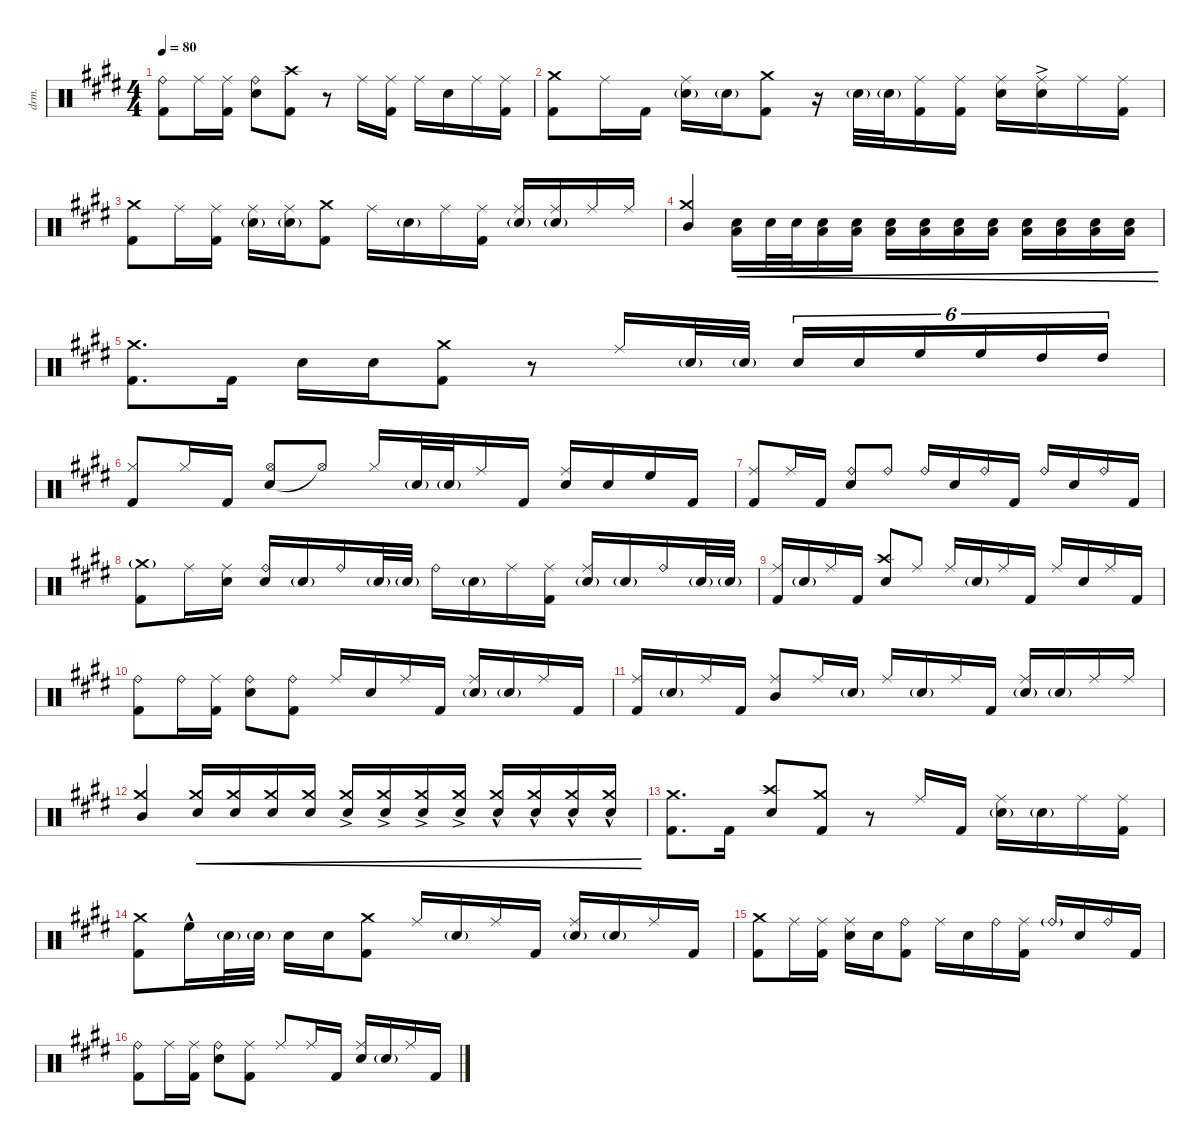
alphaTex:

\defaultSystemsLayout 4
\hideDynamics
\bracketExtendMode groupsimilarinstruments
\otherSystemsTrackNameOrientation horizontal
\chordDiagramsInScore
\track ("Drumkit" "drm.") {instrument percussion}
\staff {score}
\articulation defaults
\ts (4 4)
\tempo 80
\clef neutral
\scale
0.958389
\ks e
("Ride (bell)"{acc forcenatural} "Kick (hit) 2"{acc forcenatural}).8{dy mf} "Ride (middle)"{acc forcenatural}.16 ("Ride (middle)"{acc forcenatural} "Kick (hit) 2"{acc forcenatural}).16 ("Snare (hit) 2"{acc forcenatural} "Ride (bell)"{acc forcenatural}).8 ("Crash high (hit)"{acc forcenatural} "Kick (hit) 2"{acc forcenatural}).8 r.8 "Ride (middle)"{acc forcenatural}.16 ("Ride (middle)"{acc forcenatural} "Kick (hit) 2"{acc forcenatural}).16 "Ride (middle)"{acc forcenatural}.16 "Snare (hit) 2"{acc forcenatural}.16 "Ride (middle)"{acc forcenatural}.16 ("Ride (middle)"{acc forcenatural} "Kick (hit) 2"{acc forcenatural}).16 |
\scale
1.04161 ("Kick (hit) 2"{acc forcenatural} "Crash medium (hit)"{acc forcenatural}).8 "Ride (middle)"{acc forcenatural}.16 "Kick (hit) 2"{acc forcenatural}.16 ("Ride (middle)"{acc forcenatural} "Snare (hit) 2"{g acc forcenatural}).16 "Snare (hit) 2"{g acc forcenatural}.16 ("Crash medium (hit)"{acc forcenatural} "Kick (hit) 2"{acc forcenatural}).8 r.16 "Snare (hit) 2"{g acc forcenatural}.32 "Snare (hit) 2"{g acc forcenatural}.32 ("Ride (middle)"{acc forcenatural} "Kick (hit) 2"{acc forcenatural}).16 ("Ride (middle)"{acc forcenatural} "Kick (hit) 2"{acc forcenatural}).16 ("Snare (hit) 2"{acc forcenatural} "Ride (middle)"{acc forcenatural}).16 ("Ride (middle)"{ac acc forcenatural} "Snare (hit) 2"{acc forcenatural}).16 "Ride (middle)"{acc forcenatural}.16 ("Ride (middle)"{acc forcenatural} "Kick (hit) 2"{acc forcenatural}).16 |
("Crash medium (hit)"{acc forcenatural} "Kick (hit) 2"{acc forcenatural}).8 "Ride (middle)"{acc forcenatural}.16 ("Ride (middle)"{acc forcenatural} "Kick (hit) 2"{acc forcenatural}).16 ("Ride (middle)"{acc forcenatural} "Snare (hit) 2"{g acc forcenatural}).16 ("Ride (middle)"{acc forcenatural} "Snare (hit) 2"{g acc forcenatural}).16 ("Crash medium (hit)"{acc forcenatural} "Kick (hit) 2"{acc forcenatural}).8 "Ride (middle)"{acc forcenatural}.16 "Snare (hit) 2"{g acc forcenatural}.16 "Ride (middle)"{acc forcenatural}.16 ("Ride (middle)"{acc forcenatural} "Kick (hit) 2"{acc forcenatural}).16 ("Snare (hit) 2"{g acc forcenatural} "Ride (middle)"{acc forcenatural}).16{beam Up} ("Ride (middle)"{acc forcenatural} "Snare (hit) 2"{g acc forcenatural}).16{beam Up} "Ride (middle)"{acc forcenatural}.16{beam Up} "Ride (middle)"{acc forcenatural}.16{beam Up} |
("Crash medium (hit)"{acc forcenatural} "Mid Tom (hit)"{acc forcenatural}).4{beam Up} ("Snare (hit) 2"{acc forcenatural} "Low Tom (hit)"{acc forcenatural}).16{cre} "Snare (hit) 2"{acc forcenatural}.32{cre} "Snare (hit) 2"{acc forcenatural}.32{cre} ("Snare (hit) 2"{acc forcenatural} "Low Tom (hit)"{acc forcenatural}).16{cre} ("Low Tom (hit)"{acc forcenatural} "Snare (hit) 2"{acc forcenatural}).16{cre} ("Snare (hit) 2"{acc forcenatural} "Low Tom (hit)"{acc forcenatural}).16{cre} ("Snare (hit) 2"{acc forcenatural} "Low Tom (hit)"{acc forcenatural}).16{cre} ("Snare (hit) 2"{acc forcenatural} "Low Tom (hit)"{acc forcenatural}).16{cre} ("Snare (hit) 2"{acc forcenatural} "Low Tom (hit)"{acc forcenatural}).16{cre} ("Snare (hit) 2"{acc forcenatural} "Low Tom (hit)"{acc forcenatural}).16{cre} ("Snare (hit) 2"{acc forcenatural} "Low Tom (hit)"{acc forcenatural}).16{cre} ("Snare (hit) 2"{acc forcenatural} "Low Tom (hit)"{acc forcenatural}).16{cre} ("Snare (hit) 2"{acc forcenatural} "Low Tom (hit)"{acc forcenatural}).16{cre} |
("Crash medium (hit)"{acc forcenatural} "Kick (hit) 2"{acc forcenatural}).8{d} "Kick (hit) 2"{acc forcenatural}.16 "Snare (hit) 2"{acc forcenatural}.16 "Snare (hit) 2"{acc forcenatural}.16 ("Crash medium (hit)"{acc forcenatural} "Kick (hit) 2"{acc forcenatural}).8 r.8 "Ride (middle)"{acc forcenatural}.16{beam Up} "Snare (hit) 2"{g acc forcenatural}.32{beam Up} "Snare (hit) 2"{g acc forcenatural}.32{beam Up} "Snare (hit) 2"{acc forcenatural}.16{tu (6 4) beam Up} "Snare (hit) 2"{acc forcenatural}.16{tu (6 4) beam Up} "High Floor Tom (hit)"{acc forcenatural}.16{tu (6 4) beam Up} "High Floor Tom (hit)"{acc forcenatural}.16{tu (6 4) beam Up} "High Tom (hit)"{acc forcenatural}.16{tu (6 4) beam Up} "High Tom (hit)"{acc forcenatural}.16{tu (6 4) beam Up} |
("Kick (hit) 2"{acc forcenatural} "Hi-Hat (closed)"{acc forcenatural}).8{beam Up} "Hi-Hat (closed)"{acc forcenatural}.16{beam Up} "Kick (hit) 2"{acc forcenatural}.16{beam Up} ("Snare (hit) 2"{acc forcenatural} "Hi-Hat (open)"{acc forcenatural}).8{beam Up} "Hi-Hat (open)"{t acc forcenatural}.8{beam Up} "Hi-Hat (closed)"{acc forcenatural}.16{beam Up} "Snare (hit) 2"{g acc forcenatural}.32{beam Up} "Snare (hit) 2"{g acc forcenatural}.32{beam Up} "Ride (middle)"{acc forcenatural}.16{beam Up} "Kick (hit) 2"{acc forcenatural}.16{beam Up} ("Snare (hit) 2"{acc forcenatural} "Ride (middle)"{acc forcenatural}).16{beam Up} "Snare (hit) 2"{acc forcenatural}.16{beam Up} "High Floor Tom (hit)"{acc forcenatural}.16{beam Up} "Kick (hit) 2"{acc forcenatural}.16{beam Up} |
\scale
1.00245 ("Ride (middle)"{acc forcenatural} "Kick (hit) 2"{acc forcenatural}).8{beam Up} "Ride (middle)"{acc forcenatural}.16{beam Up} "Kick (hit) 2"{acc forcenatural}.16{beam Up} ("Snare (hit) 2"{acc forcenatural} "Ride (bell)"{acc forcenatural}).8{beam Up} "Ride (bell)"{acc forcenatural}.8{beam Up} "Ride (bell)"{acc forcenatural}.16{beam Up} "Snare (hit) 2"{acc forcenatural}.16{beam Up} "Ride (bell)"{acc forcenatural}.16{beam Up} "Kick (hit) 2"{acc forcenatural}.16{beam Up} "Ride (bell)"{acc forcenatural}.16{beam Up} "Snare (hit) 2"{acc forcenatural}.16{beam Up} "Ride (bell)"{acc forcenatural}.16{beam Up} "Kick (hit) 2"{acc forcenatural}.16{beam Up} |
\scale
0.997548 ("Crash medium (hit)"{g acc forcenatural} "Kick (hit) 2"{acc forcenatural}).8{beam Down} "Ride (middle)"{acc forcenatural}.16{beam Down} ("Ride (middle)"{acc forcenatural} "Snare (hit) 2"{acc forcenatural}).16{beam Down} ("Ride (bell)"{acc forcenatural} "Snare (hit) 2"{acc forcenatural}).16{beam Up} "Snare (hit) 2"{g acc forcenatural}.16{beam Up} "Ride (bell)"{acc forcenatural}.16{beam Up} "Snare (hit) 2"{g acc forcenatural}.32{beam Up} "Snare (hit) 2"{g acc forcenatural}.32{beam Up} "Ride (bell)"{acc forcenatural}.16{beam Down} "Snare (hit) 2"{g acc forcenatural}.16 "Ride (middle)"{acc forcenatural}.16 ("Ride (middle)"{acc forcenatural} "Kick (hit) 2"{acc forcenatural}).16 ("Snare (hit) 2"{g acc forcenatural} "Ride (middle)"{acc forcenatural}).16{beam Up} "Snare (hit) 2"{g acc forcenatural}.16{beam Up} "Ride (bell)"{acc forcenatural}.16{beam Up} "Snare (hit) 2"{g acc forcenatural}.32{beam Up} "Snare (hit) 2"{g acc forcenatural}.32{beam Up} |
("Kick (hit) 2"{acc forcenatural} "Ride (middle)"{acc forcenatural}).16{beam Up} "Snare (hit) 2"{g acc forcenatural}.16{beam Up} "Ride (middle)"{acc forcenatural}.16{beam Up} "Kick (hit) 2"{acc forcenatural}.16{beam Up} ("Crash high (hit)"{acc forcenatural} "Snare (hit) 2"{acc forcenatural}).8{beam Up} "Ride (middle)"{acc forcenatural}.8{beam Up} "Ride (middle)"{acc forcenatural}.16{beam Up} "Snare (hit) 2"{g acc forcenatural}.16{beam Up} "Ride (middle)"{acc forcenatural}.16{beam Up} "Kick (hit) 2"{acc forcenatural}.16{beam Up} "Ride (middle)"{acc forcenatural}.16{beam Up} "Snare (hit) 2"{acc forcenatural}.16{beam Up} "Ride (middle)"{acc forcenatural}.16{beam Up} "Kick (hit) 2"{acc forcenatural}.16{beam Up} |
("Ride (bell)"{acc forcenatural} "Kick (hit) 2"{acc forcenatural}).8 "Ride (bell)"{acc forcenatural}.16 ("Ride (middle)"{acc forcenatural} "Kick (hit) 2"{acc forcenatural}).16 ("Ride (bell)"{acc forcenatural} "Snare (hit) 2"{acc forcenatural}).8 ("Ride (bell)"{acc forcenatural} "Kick (hit) 2"{acc forcenatural}).8 "Ride (middle)"{acc forcenatural}.16{beam Up} "Snare (hit) 2"{acc forcenatural}.16{beam Up} "Ride (middle)"{acc forcenatural}.16{beam Up} "Kick (hit) 2"{acc forcenatural}.16{beam Up} ("Snare (hit) 2"{g acc forcenatural} "Ride (middle)"{acc forcenatural}).16{beam Up} "Snare (hit) 2"{g acc forcenatural}.16{beam Up} "Ride (middle)"{acc forcenatural}.16{beam Up} "Kick (hit) 2"{acc forcenatural}.16{beam Up} |
\scale
1.09217 ("Ride (middle)"{acc forcenatural} "Kick (hit) 2"{acc forcenatural}).16{beam Up} "Snare (hit) 2"{g acc forcenatural}.16{beam Up} "Ride (middle)"{acc forcenatural}.16{beam Up} "Kick (hit) 2"{acc forcenatural}.16{beam Up} ("Mid Tom (hit)"{acc forcenatural} "Ride (middle)"{acc forcenatural}).8{beam Up} "Ride (middle)"{acc forcenatural}.16{beam Up} "Snare (hit) 2"{g acc forcenatural}.16{beam Up} "Ride (middle)"{acc forcenatural}.16{beam Up} "Snare (hit) 2"{g acc forcenatural}.16{beam Up} "Ride (middle)"{acc forcenatural}.16{beam Up} "Kick (hit) 2"{acc forcenatural}.16{beam Up} ("Ride (middle)"{acc forcenatural} "Snare (hit) 2"{g acc forcenatural}).16{beam Up} "Snare (hit) 2"{g acc forcenatural}.16{beam Up} "Ride (middle)"{acc forcenatural}.16{beam Up} "Ride (middle)"{acc forcenatural}.16{beam Up} |
\scale
0.907832 ("Crash medium (hit)"{acc forcenatural} "Mid Tom (hit)"{acc forcenatural}).4{beam Up} ("Crash medium (hit)"{acc forcenatural} "Snare (hit) 2"{acc forcenatural}).16{cre beam Up} ("Crash medium (hit)"{acc forcenatural} "Snare (hit) 2"{acc forcenatural}).16{cre beam Up} ("Crash medium (hit)"{acc forcenatural} "Snare (hit) 2"{acc forcenatural}).16{cre beam Up} ("Crash medium (hit)"{acc forcenatural} "Snare (hit) 2"{acc forcenatural}).16{cre beam Up} ("Crash medium (hit)"{ac acc forcenatural} "Snare (hit) 2"{ac acc forcenatural}).16{cre beam Up} ("Crash medium (hit)"{ac acc forcenatural} "Snare (hit) 2"{ac acc forcenatural}).16{cre beam Up} ("Crash medium (hit)"{ac acc forcenatural} "Snare (hit) 2"{ac acc forcenatural}).16{cre beam Up} ("Crash medium (hit)"{ac acc forcenatural} "Snare (hit) 2"{ac acc forcenatural}).16{cre beam Up} ("Crash medium (hit)"{hac acc forcenatural} "Snare (hit) 2"{hac acc forcenatural}).16{cre beam Up} ("Crash medium (hit)"{hac acc forcenatural} "Snare (hit) 2"{hac acc forcenatural}).16{cre beam Up} ("Crash medium (hit)"{hac acc forcenatural} "Snare (hit) 2"{hac acc forcenatural}).16{cre beam Up} ("Crash medium (hit)"{hac acc forcenatural} "Snare (hit) 2"{hac acc forcenatural}).16{cre beam Up} |
\scale
1.05848 ("Crash medium (hit)"{acc forcenatural} "Kick (hit) 2"{acc forcenatural}).8{d} "Kick (hit) 2"{acc forcenatural}.16 ("Crash high (hit)"{acc forcenatural} "Snare (hit) 2"{acc forcenatural}).8{beam Up} ("Crash medium (hit)"{acc forcenatural} "Kick (hit) 2"{acc forcenatural}).8{beam Up} r.8 "Ride (middle)"{acc forcenatural}.16{beam Up} "Kick (hit) 2"{acc forcenatural}.16{beam Up} ("Ride (middle)"{acc forcenatural} "Snare (hit) 2"{g acc forcenatural}).16 "Snare (hit) 2"{g acc forcenatural}.16 "Ride (middle)"{acc forcenatural}.16 ("Ride (middle)"{acc forcenatural} "Kick (hit) 2"{acc forcenatural}).16 |
\scale
0.941516 ("Crash medium (hit)"{acc forcenatural} "Kick (hit) 2"{acc forcenatural}).8 "High Floor Tom (hit)"{hac acc forcenatural}.16 "Snare (hit) 2"{g acc forcenatural}.32 "Snare (hit) 2"{g acc forcenatural}.32 "Snare (hit) 2"{acc forcenatural}.16{beam Down} "Snare (hit) 2"{acc forcenatural}.16{beam Down} ("Kick (hit) 2"{acc forcenatural} "Crash medium (hit)"{acc forcenatural}).8{beam Down} "Ride (middle)"{acc forcenatural}.16{beam Up} "Snare (hit) 2"{g acc forcenatural}.16{beam Up} "Ride (middle)"{acc forcenatural}.16{beam Up} "Kick (hit) 2"{acc forcenatural}.16{beam Up} ("Ride (middle)"{acc forcenatural} "Snare (hit) 2"{g acc forcenatural}).16{beam Up} "Snare (hit) 2"{g acc forcenatural}.16{beam Up} "Ride (middle)"{acc forcenatural}.16{beam Up} "Kick (hit) 2"{acc forcenatural}.16{beam Up} |
("Crash medium (hit)"{acc forcenatural} "Kick (hit) 2"{acc forcenatural}).8 "Ride (middle)"{acc forcenatural}.16 ("Ride (middle)"{acc forcenatural} "Kick (hit) 2"{acc forcenatural}).16 ("Ride (middle)"{acc forcenatural} "Snare (hit) 2"{acc forcenatural}).16 "Snare (hit) 2"{acc forcenatural}.16 ("Ride (bell)"{acc forcenatural} "Kick (hit) 2"{acc forcenatural}).8 "Ride (middle)"{acc forcenatural}.16 "Snare (hit) 2"{acc forcenatural}.16 "Ride (bell)"{acc forcenatural}.16 ("Ride (middle)"{acc forcenatural} "Kick (hit) 2"{acc forcenatural}).16 "Ride (bell)"{g acc forcenatural}.16{beam Up} "Snare (hit) 2"{acc forcenatural}.16{beam Up} "Ride (bell)"{acc forcenatural}.16{beam Up} "Kick (hit) 2"{acc forcenatural}.16{beam Up} |
("Ride (bell)"{acc forcenatural} "Kick (hit) 2"{acc forcenatural}).8 "Ride (middle)"{acc forcenatural}.16 ("Ride (middle)"{acc forcenatural} "Kick (hit) 2"{acc forcenatural}).16 ("Snare (hit) 2"{acc forcenatural} "Ride (bell)"{acc forcenatural}).8 ("Ride (middle)"{acc forcenatural} "Kick (hit) 2"{acc forcenatural}).8 "Ride (middle)"{acc forcenatural}.8{beam Up} "Ride (middle)"{acc forcenatural}.16{beam Up} "Kick (hit) 2"{acc forcenatural}.16{beam Up} ("Ride (middle)"{acc forcenatural} "Snare (hit) 2"{acc forcenatural}).16{beam Up} "Snare (hit) 2"{g acc forcenatural}.16{beam Up} "Ride (middle)"{acc forcenatural}.16{beam Up} "Kick (hit) 2"{acc forcenatural}.16{beam Up}
